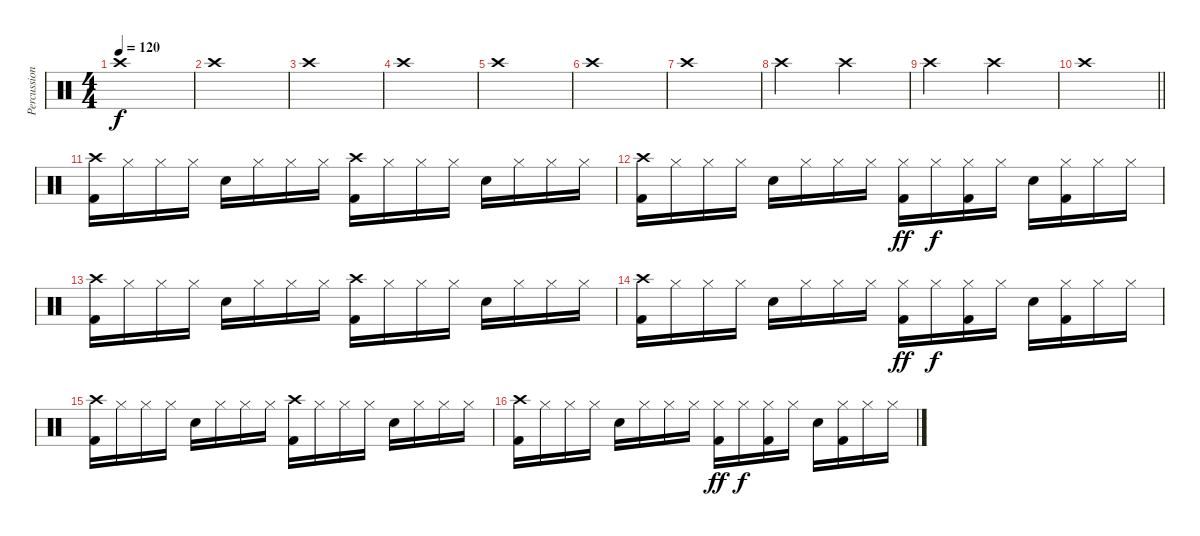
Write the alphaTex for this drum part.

\track ("Percussions" "Percussion") {instrument percussion}
\staff {score}
\articulation defaults
\ts (4 4)
\tempo 120
\clef neutral
\ks c "Crash high (hit)".1{dy f}
|
"Crash high (hit)".1 |
"Crash high (hit)".1 |
"Crash high (hit)".1 |
"Crash high (hit)".1 |
"Crash high (hit)".1 |
"Crash high (hit)".1 |
"Crash high (hit)".2 "Crash high (hit)".2 |
"Crash high (hit)".2 "Crash high (hit)".2 |
\barLineRight lightlight "Crash high (hit)".1
|
("Crash high (hit)" "Kick (hit) 2").16 "Hi-Hat (closed)".16 "Hi-Hat (closed)".16 "Hi-Hat (closed)".16 "Snare (hit) 2".16 "Hi-Hat (closed)".16 "Hi-Hat (closed)".16 "Hi-Hat (closed)".16 ("Crash high (hit)" "Kick (hit) 2").16 "Hi-Hat (closed)".16 "Hi-Hat (closed)".16 "Hi-Hat (closed)".16 "Snare (hit) 2".16 "Hi-Hat (closed)".16 "Hi-Hat (closed)".16 "Hi-Hat (closed)".16 |
("Crash high (hit)" "Kick (hit) 2").16 "Hi-Hat (closed)".16 "Hi-Hat (closed)".16 "Hi-Hat (closed)".16 "Snare (hit) 2".16 "Hi-Hat (closed)".16 "Hi-Hat (closed)".16 "Hi-Hat (closed)".16 ("Hi-Hat (closed)" "Kick (hit) 2").16{dy ff} "Hi-Hat (closed)".16{dy f} ("Hi-Hat (closed)" "Kick (hit) 2").16 "Hi-Hat (closed)".16 "Snare (hit) 2".16 ("Hi-Hat (closed)" "Kick (hit) 2").16 "Hi-Hat (closed)".16 "Hi-Hat (closed)".16 |
("Crash high (hit)" "Kick (hit) 2").16 "Hi-Hat (closed)".16 "Hi-Hat (closed)".16 "Hi-Hat (closed)".16 "Snare (hit) 2".16 "Hi-Hat (closed)".16 "Hi-Hat (closed)".16 "Hi-Hat (closed)".16 ("Crash high (hit)" "Kick (hit) 2").16 "Hi-Hat (closed)".16 "Hi-Hat (closed)".16 "Hi-Hat (closed)".16 "Snare (hit) 2".16 "Hi-Hat (closed)".16 "Hi-Hat (closed)".16 "Hi-Hat (closed)".16 |
("Crash high (hit)" "Kick (hit) 2").16 "Hi-Hat (closed)".16 "Hi-Hat (closed)".16 "Hi-Hat (closed)".16 "Snare (hit) 2".16 "Hi-Hat (closed)".16 "Hi-Hat (closed)".16 "Hi-Hat (closed)".16 ("Hi-Hat (closed)" "Kick (hit) 2").16{dy ff} "Hi-Hat (closed)".16{dy f} ("Hi-Hat (closed)" "Kick (hit) 2").16 "Hi-Hat (closed)".16 "Snare (hit) 2".16 ("Hi-Hat (closed)" "Kick (hit) 2").16 "Hi-Hat (closed)".16 "Hi-Hat (closed)".16 |
("Crash high (hit)" "Kick (hit) 2").16 "Hi-Hat (closed)".16 "Hi-Hat (closed)".16 "Hi-Hat (closed)".16 "Snare (hit) 2".16 "Hi-Hat (closed)".16 "Hi-Hat (closed)".16 "Hi-Hat (closed)".16 ("Crash high (hit)" "Kick (hit) 2").16 "Hi-Hat (closed)".16 "Hi-Hat (closed)".16 "Hi-Hat (closed)".16 "Snare (hit) 2".16 "Hi-Hat (closed)".16 "Hi-Hat (closed)".16 "Hi-Hat (closed)".16 |
("Crash high (hit)" "Kick (hit) 2").16 "Hi-Hat (closed)".16 "Hi-Hat (closed)".16 "Hi-Hat (closed)".16 "Snare (hit) 2".16 "Hi-Hat (closed)".16 "Hi-Hat (closed)".16 "Hi-Hat (closed)".16 ("Hi-Hat (closed)" "Kick (hit) 2").16{dy ff} "Hi-Hat (closed)".16{dy f} ("Hi-Hat (closed)" "Kick (hit) 2").16 "Hi-Hat (closed)".16 "Snare (hit) 2".16 ("Hi-Hat (closed)" "Kick (hit) 2").16 "Hi-Hat (closed)".16 "Hi-Hat (closed)".16
